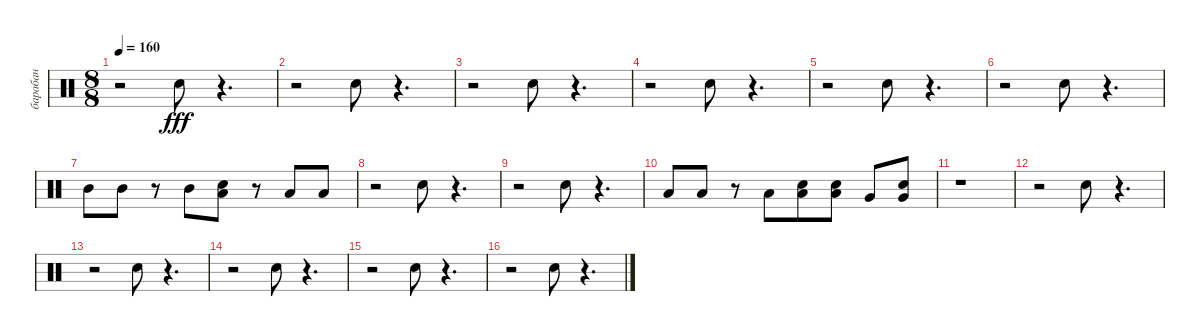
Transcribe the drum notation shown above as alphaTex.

\track ("барабан" "барабан") {instrument percussion}
\staff {score}
\articulation defaults
\ts (8 8)
\tempo 160
\clef neutral
\ks c
r.2{dy fff} "Snare (hit) 2".8 r.4{d} |
r.2 "Snare (hit) 2".8 r.4{d} |
r.2 "Snare (hit) 2".8 r.4{d} |
r.2 "Snare (hit) 2".8 r.4{d} |
r.2 "Snare (hit) 2".8 r.4{d} |
r.2 "Snare (hit) 2".8 r.4{d} |
"Mid Tom (hit)".8 "Mid Tom (hit)".8 r.8 "Mid Tom (hit)".8 ("Snare (hit) 2" "Low Tom (hit)").8 r.8 "Low Tom (hit)".8 "Low Tom (hit)".8 |
r.2 "Snare (hit) 2".8 r.4{d} |
r.2 "Snare (hit) 2".8 r.4{d} |
"Low Tom (hit)".8 "Low Tom (hit)".8 r.8 "Low Tom (hit)".8 ("Snare (hit) 2" "Low Tom (hit)").8 ("Snare (hit) 2" "Low Tom (hit)").8 "Very Low Tom (hit)".8 ("Snare (hit) 2" "Very Low Tom (hit)").8 |
r.1 |
r.2 "Snare (hit) 2".8 r.4{d} |
r.2 "Snare (hit) 2".8 r.4{d} |
r.2 "Snare (hit) 2".8 r.4{d} |
r.2 "Snare (hit) 2".8 r.4{d} |
r.2 "Snare (hit) 2".8 r.4{d}
